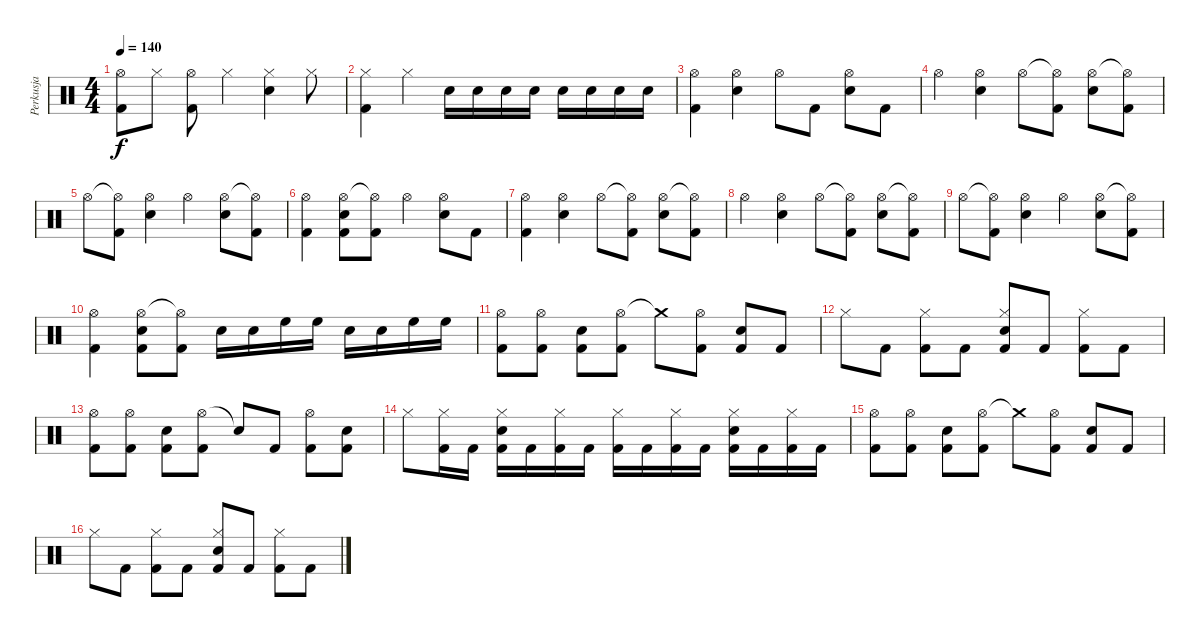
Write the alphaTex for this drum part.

\track ("Perkusja" "Perkusja") {instrument percussion}
\staff {score}
\articulation defaults
\ts (4 4)
\tempo 140
\clef neutral
\ks c
("Hi-Hat (open)" "Kick (hit) 2").8{dy f} "Hi-Hat (closed)".8 ("Hi-Hat (open)" "Kick (hit) 2").8 "Hi-Hat (closed)".4 ("Hi-Hat (closed)" "Snare (hit) 2").4 "Hi-Hat (closed)".8 |
("Hi-Hat (closed)" "Kick (hit) 2").4 "Hi-Hat (closed)".4 "Snare (hit) 2".16 "Snare (hit) 2".16 "Snare (hit) 2".16 "Snare (hit) 2".16 "Snare (hit) 2".16 "Snare (hit) 2".16 "Snare (hit) 2".16 "Snare (hit) 2".16 |
("Hi-Hat (open)" "Kick (hit) 2").4 ("Hi-Hat (open)" "Snare (hit) 2").4 "Hi-Hat (open)".8 "Kick (hit) 2".8 ("Hi-Hat (open)" "Snare (hit) 2").8 "Kick (hit) 2".8 |
"Hi-Hat (open)".4 ("Hi-Hat (open)" "Snare (hit) 2").4 "Hi-Hat (open)".8 ("Hi-Hat (open)"{t} "Kick (hit) 2").8 ("Hi-Hat (open)" "Snare (hit) 2").8 ("Hi-Hat (open)"{t} "Kick (hit) 2").8 |
"Hi-Hat (open)".8 ("Hi-Hat (open)"{t} "Kick (hit) 2").8 ("Hi-Hat (open)" "Snare (hit) 2").4 "Hi-Hat (open)".4 ("Hi-Hat (open)" "Snare (hit) 2").8 ("Hi-Hat (open)"{t} "Kick (hit) 2").8 |
("Hi-Hat (open)" "Kick (hit) 2").4 ("Hi-Hat (open)" "Snare (hit) 2" "Kick (hit) 2").8 ("Hi-Hat (open)"{t} "Kick (hit) 2").8 "Hi-Hat (open)".4 ("Hi-Hat (open)" "Snare (hit) 2").8 "Kick (hit) 2".8 |
("Hi-Hat (open)" "Kick (hit) 2").4 ("Hi-Hat (open)" "Snare (hit) 2").4 "Hi-Hat (open)".8 ("Hi-Hat (open)"{t} "Kick (hit) 2").8 ("Hi-Hat (open)" "Snare (hit) 2").8 ("Hi-Hat (open)"{t} "Kick (hit) 2").8 |
"Hi-Hat (open)".4 ("Hi-Hat (open)" "Snare (hit) 2").4 "Hi-Hat (open)".8 ("Hi-Hat (open)"{t} "Kick (hit) 2").8 ("Hi-Hat (open)" "Snare (hit) 2").8 ("Hi-Hat (open)"{t} "Kick (hit) 2").8 |
"Hi-Hat (open)".8 ("Hi-Hat (open)"{t} "Kick (hit) 2").8 ("Hi-Hat (open)" "Snare (hit) 2").4 "Hi-Hat (open)".4 ("Hi-Hat (open)" "Snare (hit) 2").8 ("Hi-Hat (open)"{t} "Kick (hit) 2").8 |
("Hi-Hat (open)" "Kick (hit) 2").4 ("Hi-Hat (open)" "Snare (hit) 2" "Kick (hit) 2").8 ("Hi-Hat (open)"{t} "Kick (hit) 2").8 "Snare (hit) 2".16 "Snare (hit) 2".16 "High Floor Tom (hit)".16 "High Floor Tom (hit)".16 "Snare (hit) 2".16 "Snare (hit) 2".16 "High Floor Tom (hit)".16 "High Floor Tom (hit)".16 |
("Hi-Hat (open)" "Kick (hit) 2").8 ("Hi-Hat (open)" "Kick (hit) 2").8 ("Snare (hit) 2" "Kick (hit) 2").8 ("Hi-Hat (open)" "Kick (hit) 2").8 "Crash medium (hit)"{t}.8 ("Hi-Hat (open)" "Kick (hit) 2").8 ("Snare (hit) 2" "Kick (hit) 2").8 "Kick (hit) 2".8 |
"Hi-Hat (closed)".8 "Kick (hit) 2".8 ("Hi-Hat (closed)" "Kick (hit) 2").8 "Kick (hit) 2".8 ("Hi-Hat (closed)" "Snare (hit) 2" "Kick (hit) 2").8 "Kick (hit) 2".8 ("Hi-Hat (closed)" "Kick (hit) 2").8 "Kick (hit) 2".8 |
("Hi-Hat (open)" "Kick (hit) 2").8 ("Hi-Hat (open)" "Kick (hit) 2").8 ("Snare (hit) 2" "Kick (hit) 2").8 ("Hi-Hat (open)" "Kick (hit) 2").8 "Snare (hit)"{t}.8 "Kick (hit) 2".8 ("Hi-Hat (open)" "Kick (hit) 2").8 ("Snare (hit) 2" "Kick (hit) 2").8 |
"Hi-Hat (closed)".8 ("Hi-Hat (closed)" "Kick (hit) 2").16 "Kick (hit) 2".16 ("Hi-Hat (closed)" "Snare (hit) 2" "Kick (hit) 2").16 "Kick (hit) 2".16 ("Hi-Hat (closed)" "Kick (hit) 2").16 "Kick (hit) 2".16 ("Hi-Hat (closed)" "Kick (hit) 2").16 "Kick (hit) 2".16 ("Hi-Hat (closed)" "Kick (hit) 2").16 "Kick (hit) 2".16 ("Hi-Hat (closed)" "Snare (hit) 2" "Kick (hit) 2").16 "Kick (hit) 2".16 ("Hi-Hat (closed)" "Kick (hit) 2").16 "Kick (hit) 2".16 |
("Hi-Hat (open)" "Kick (hit) 2").8 ("Hi-Hat (open)" "Kick (hit) 2").8 ("Snare (hit) 2" "Kick (hit) 2").8 ("Hi-Hat (open)" "Kick (hit) 2").8 "Crash medium (hit)"{t}.8 ("Hi-Hat (open)" "Kick (hit) 2").8 ("Snare (hit) 2" "Kick (hit) 2").8 "Kick (hit) 2".8 |
"Hi-Hat (closed)".8 "Kick (hit) 2".8 ("Hi-Hat (closed)" "Kick (hit) 2").8 "Kick (hit) 2".8 ("Hi-Hat (closed)" "Snare (hit) 2" "Kick (hit) 2").8 "Kick (hit) 2".8 ("Hi-Hat (closed)" "Kick (hit) 2").8 "Kick (hit) 2".8
